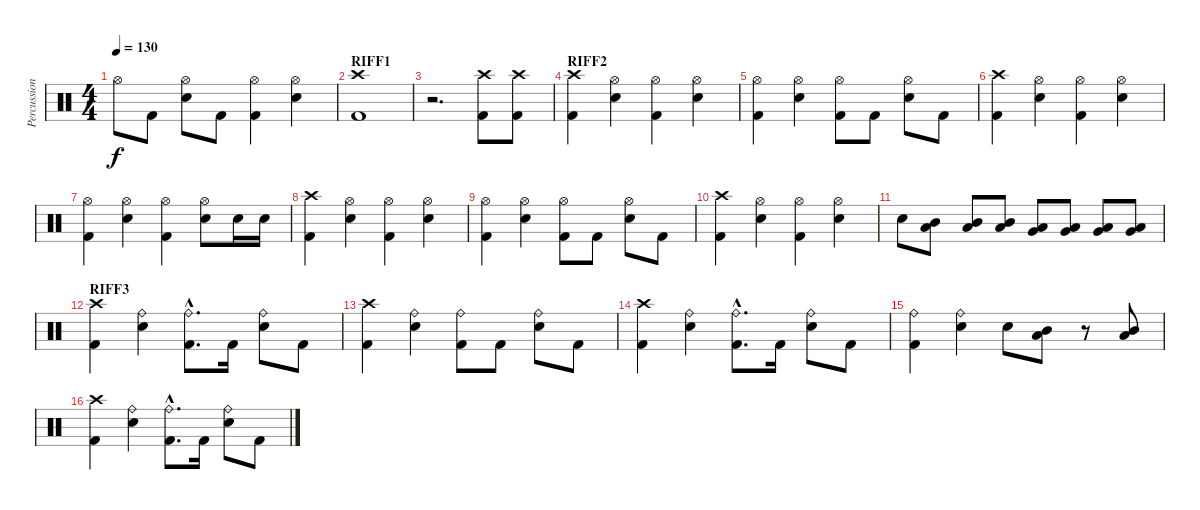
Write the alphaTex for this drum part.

\track ("Percussion" "Percussion") {instrument percussion}
\staff {score}
\articulation defaults
\ts (4 4)
\tempo 130
\clef neutral
\ks c "Hi-Hat (open)".8{dy f} "Kick (hit) 2".8
("Hi-Hat (open)" "Electric Snare (hit)").8 "Kick (hit) 2".8 ("Hi-Hat (open)" "Kick (hit) 2").4 ("Hi-Hat (open)" "Electric Snare (hit)").4 |
\section ("" "RIFF1")
("Crash high (hit)" "Kick (hit) 2").1 |
r.2{d} ("Crash high (hit)" "Kick (hit) 2").8 ("Crash high (hit)" "Kick (hit) 2").8 |
\section ("" "RIFF2")
("Crash high (hit)" "Kick (hit) 2").4 ("Hi-Hat (open)" "Electric Snare (hit)").4 ("Hi-Hat (open)" "Kick (hit) 2").4 ("Hi-Hat (open)" "Electric Snare (hit)").4 |
("Hi-Hat (open)" "Kick (hit) 2").4 ("Hi-Hat (open)" "Electric Snare (hit)").4 ("Hi-Hat (open)" "Kick (hit) 2").8 "Kick (hit) 2".8 ("Hi-Hat (open)" "Electric Snare (hit)").8 "Kick (hit) 2".8 |
("Crash high (hit)" "Kick (hit) 2").4 ("Hi-Hat (open)" "Electric Snare (hit)").4 ("Hi-Hat (open)" "Kick (hit) 2").4 ("Hi-Hat (open)" "Electric Snare (hit)").4 |
("Hi-Hat (open)" "Kick (hit) 2").4 ("Hi-Hat (open)" "Electric Snare (hit)").4 ("Hi-Hat (open)" "Kick (hit) 2").4 ("Hi-Hat (open)" "Electric Snare (hit)").8 "Electric Snare (hit)".16 "Electric Snare (hit)".16 |
("Crash high (hit)" "Kick (hit) 2").4 ("Hi-Hat (open)" "Electric Snare (hit)").4 ("Hi-Hat (open)" "Kick (hit) 2").4 ("Hi-Hat (open)" "Electric Snare (hit)").4 |
("Hi-Hat (open)" "Kick (hit) 2").4 ("Hi-Hat (open)" "Electric Snare (hit)").4 ("Hi-Hat (open)" "Kick (hit) 2").8 "Kick (hit) 2".8 ("Hi-Hat (open)" "Electric Snare (hit)").8 "Kick (hit) 2".8 |
("Crash high (hit)" "Kick (hit) 2").4 ("Hi-Hat (open)" "Electric Snare (hit)").4 ("Hi-Hat (open)" "Kick (hit) 2").4 ("Hi-Hat (open)" "Electric Snare (hit)").4 |
"Electric Snare (hit)".8 ("Low Tom (hit)" "Mid Tom (hit)").8 ("Low Tom (hit)" "Mid Tom (hit)").8 ("Low Tom (hit)" "Mid Tom (hit)").8 ("Very Low Tom (hit)" "Low Tom (hit)").8 ("Very Low Tom (hit)" "Low Tom (hit)").8 ("Very Low Tom (hit)" "Low Tom (hit)").8 ("Low Floor Tom (hit)" "Very Low Tom (hit)").8 |
\section ("" "RIFF3")
("Crash high (hit)" "Kick (hit) 2").4 ("Ride (bell)" "Electric Snare (hit)").4 ("Ride (bell)"{hac} "Kick (hit) 2"{hac}).8{d} "Kick (hit) 2".16 ("Ride (bell)" "Electric Snare (hit)").8 "Kick (hit) 2".8 |
("Crash high (hit)" "Kick (hit) 2").4 ("Ride (bell)" "Electric Snare (hit)").4 ("Ride (bell)" "Kick (hit) 2").8 "Kick (hit) 2".8 ("Ride (bell)" "Electric Snare (hit)").8 "Kick (hit) 2".8 |
("Crash high (hit)" "Kick (hit) 2").4 ("Ride (bell)" "Electric Snare (hit)").4 ("Ride (bell)"{hac} "Kick (hit) 2"{hac}).8{d} "Kick (hit) 2".16 ("Ride (bell)" "Electric Snare (hit)").8 "Kick (hit) 2".8 |
("Ride (bell)" "Kick (hit) 2").4 ("Ride (bell)" "Electric Snare (hit)").4 "Electric Snare (hit)".8 ("Mid Tom (hit)" "Low Tom (hit)").8 r.8 ("Mid Tom (hit)" "Low Tom (hit)").8 |
("Crash high (hit)" "Kick (hit) 2").4 ("Ride (bell)" "Electric Snare (hit)").4 ("Ride (bell)"{hac} "Kick (hit) 2"{hac}).8{d} "Kick (hit) 2".16 ("Ride (bell)" "Electric Snare (hit)").8 "Kick (hit) 2".8
